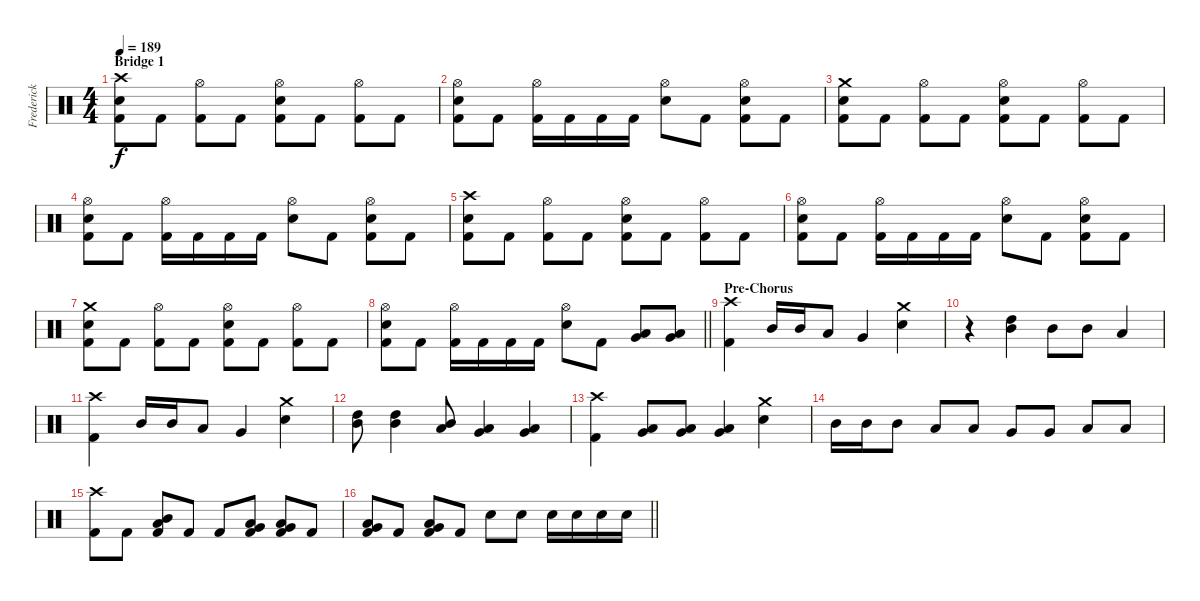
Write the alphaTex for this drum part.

\track ("Frederick Ehmke" "Frederick ") {instrument percussion}
\staff {score}
\articulation defaults
\ts (4 4)
\section ("" "Bridge 1")
\tempo 189
\clef neutral
\ks c
("Electric Snare (hit)" "Kick (hit) 2" "Crash high (hit)").8{dy f} "Kick (hit) 2".8 ("Kick (hit) 2" "Hi-Hat (open)").8 "Kick (hit) 2".8 ("Electric Snare (hit)" "Kick (hit) 2" "Hi-Hat (open)").8 "Kick (hit) 2".8 ("Kick (hit) 2" "Hi-Hat (open)").8 "Kick (hit) 2".8 |
("Electric Snare (hit)" "Kick (hit) 2" "Hi-Hat (open)").8 "Kick (hit) 2".8 ("Kick (hit) 2" "Hi-Hat (open)").16 "Kick (hit) 2".16 "Kick (hit) 2".16 "Kick (hit) 2".16 ("Electric Snare (hit)" "Hi-Hat (open)").8 "Kick (hit) 2".8 ("Electric Snare (hit)" "Kick (hit) 2" "Hi-Hat (open)").8 "Kick (hit) 2".8 |
("Electric Snare (hit)" "Kick (hit) 2" "Crash medium (hit)").8 "Kick (hit) 2".8 ("Kick (hit) 2" "Hi-Hat (open)").8 "Kick (hit) 2".8 ("Electric Snare (hit)" "Kick (hit) 2" "Hi-Hat (open)").8 "Kick (hit) 2".8 ("Kick (hit) 2" "Hi-Hat (open)").8 "Kick (hit) 2".8 |
("Electric Snare (hit)" "Kick (hit) 2" "Hi-Hat (open)").8 "Kick (hit) 2".8 ("Kick (hit) 2" "Hi-Hat (open)").16 "Kick (hit) 2".16 "Kick (hit) 2".16 "Kick (hit) 2".16 ("Electric Snare (hit)" "Hi-Hat (open)").8 "Kick (hit) 2".8 ("Electric Snare (hit)" "Kick (hit) 2" "Hi-Hat (open)").8 "Kick (hit) 2".8 |
("Electric Snare (hit)" "Kick (hit) 2" "Crash high (hit)").8 "Kick (hit) 2".8 ("Kick (hit) 2" "Hi-Hat (open)").8 "Kick (hit) 2".8 ("Electric Snare (hit)" "Kick (hit) 2" "Hi-Hat (open)").8 "Kick (hit) 2".8 ("Kick (hit) 2" "Hi-Hat (open)").8 "Kick (hit) 2".8 |
("Electric Snare (hit)" "Kick (hit) 2" "Hi-Hat (open)").8 "Kick (hit) 2".8 ("Kick (hit) 2" "Hi-Hat (open)").16 "Kick (hit) 2".16 "Kick (hit) 2".16 "Kick (hit) 2".16 ("Electric Snare (hit)" "Hi-Hat (open)").8 "Kick (hit) 2".8 ("Electric Snare (hit)" "Kick (hit) 2" "Hi-Hat (open)").8 "Kick (hit) 2".8 |
("Electric Snare (hit)" "Kick (hit) 2" "Crash medium (hit)").8 "Kick (hit) 2".8 ("Kick (hit) 2" "Hi-Hat (open)").8 "Kick (hit) 2".8 ("Electric Snare (hit)" "Kick (hit) 2" "Hi-Hat (open)").8 "Kick (hit) 2".8 ("Kick (hit) 2" "Hi-Hat (open)").8 "Kick (hit) 2".8 |
\barLineRight lightlight
("Electric Snare (hit)" "Kick (hit) 2" "Hi-Hat (open)").8 "Kick (hit) 2".8 ("Kick (hit) 2" "Hi-Hat (open)").16 "Kick (hit) 2".16 "Kick (hit) 2".16 "Kick (hit) 2".16 ("Electric Snare (hit)" "Hi-Hat (open)").8 "Kick (hit) 2".8 ("Low Tom (hit)" "Very Low Tom (hit)").8 ("Low Tom (hit)" "Very Low Tom (hit)").8 |
\section ("" "Pre-Chorus")
("Kick (hit) 2" "Crash high (hit)").4 "Mid Tom (hit)".16 "Mid Tom (hit)".16 "Low Tom (hit)".8 "Very Low Tom (hit)".4 ("Electric Snare (hit)" "Crash medium (hit)").4 |
r.4 ("Mid Tom (hit)" "High Tom (hit)").4 "Mid Tom (hit)".8 "Mid Tom (hit)".8 "Low Tom (hit)".4 |
("Kick (hit) 2" "Crash high (hit)").4 "Mid Tom (hit)".16 "Mid Tom (hit)".16 "Low Tom (hit)".8 "Very Low Tom (hit)".4 ("Electric Snare (hit)" "Crash medium (hit)").4 |
("Mid Tom (hit)" "High Tom (hit)").8 ("Mid Tom (hit)" "High Tom (hit)").4 ("Mid Tom (hit)" "Low Tom (hit)").8 ("Low Tom (hit)" "Very Low Tom (hit)").4 ("Low Tom (hit)" "Very Low Tom (hit)").4 |
("Kick (hit) 2" "Crash high (hit)").4 ("Very Low Tom (hit)" "Low Tom (hit)").8 ("Very Low Tom (hit)" "Low Tom (hit)").8 ("Very Low Tom (hit)" "Low Tom (hit)").4 ("Electric Snare (hit)" "Crash medium (hit)").4 |
"Mid Tom (hit)".16 "Mid Tom (hit)".16 "Mid Tom (hit)".8 "Low Tom (hit)".8 "Low Tom (hit)".8 "Very Low Tom (hit)".8 "Very Low Tom (hit)".8 "Low Floor Tom (hit)".8 "Low Floor Tom (hit)".8 |
("Kick (hit) 2" "Crash high (hit)").8 "Kick (hit) 2".8 ("Kick (hit) 2" "Low Tom (hit)" "Mid Tom (hit)").8 "Kick (hit) 2".8 "Kick (hit) 2".8 ("Kick (hit) 2" "Low Tom (hit)" "Very Low Tom (hit)").8 ("Kick (hit) 2" "Low Tom (hit)" "Very Low Tom (hit)").8 "Kick (hit) 2".8 |
\barLineRight lightlight
("Kick (hit) 2" "Very Low Tom (hit)" "Low Floor Tom (hit)").8 "Kick (hit) 2".8 ("Kick (hit) 2" "Very Low Tom (hit)" "Low Floor Tom (hit)").8 "Kick (hit) 2".8 "Electric Snare (hit)".8 "Electric Snare (hit)".8 "Electric Snare (hit)".16 "Electric Snare (hit)".16 "Electric Snare (hit)".16 "Electric Snare (hit)".16
